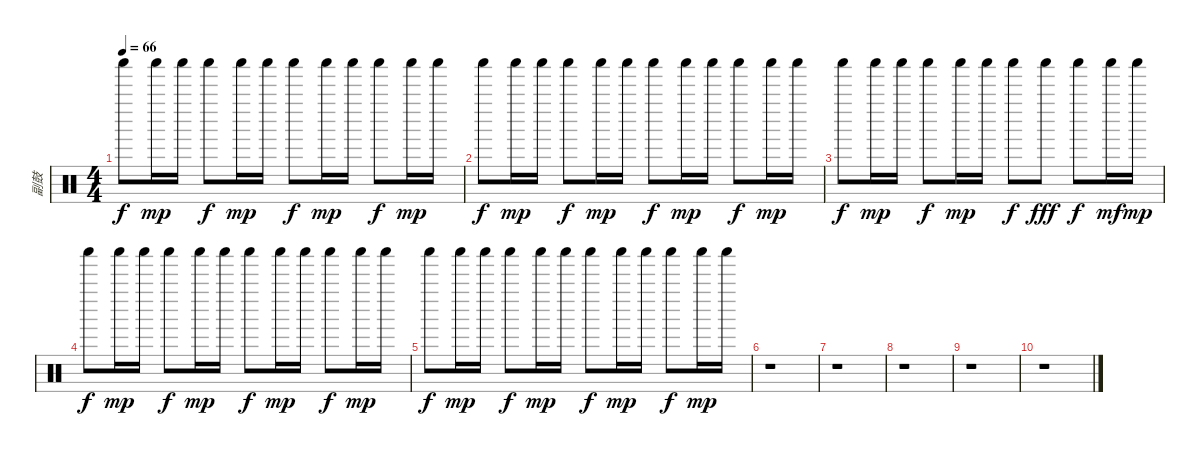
\track ("副鼓" "副鼓") {instrument percussion}
\staff {score}
\articulation defaults
\ts (4 4)
\tempo 66
\clef neutral
\ks c "Shaker (hit)".8{dy f} "Shaker (hit)".16{dy mp} "Shaker (hit)".16 "Shaker (hit)".8{dy f} "Shaker (hit)".16{dy mp} "Shaker (hit)".16 "Shaker (hit)".8{dy f} "Shaker (hit)".16{dy mp} "Shaker (hit)".16 "Shaker (hit)".8{dy f} "Shaker (hit)".16{dy mp} "Shaker (hit)".16
|
"Shaker (hit)".8{dy f} "Shaker (hit)".16{dy mp} "Shaker (hit)".16 "Shaker (hit)".8{dy f} "Shaker (hit)".16{dy mp} "Shaker (hit)".16 "Shaker (hit)".8{dy f} "Shaker (hit)".16{dy mp} "Shaker (hit)".16 "Shaker (hit)".8{dy f} "Shaker (hit)".16{dy mp} "Shaker (hit)".16 |
"Shaker (hit)".8{dy f} "Shaker (hit)".16{dy mp} "Shaker (hit)".16 "Shaker (hit)".8{dy f} "Shaker (hit)".16{dy mp} "Shaker (hit)".16 "Shaker (hit)".8{dy f} "Shaker (hit)".8{dy fff} "Shaker (hit)".8{dy f} "Shaker (hit)".16{dy mf} "Shaker (hit)".16{dy mp} |
"Shaker (hit)".8{dy f} "Shaker (hit)".16{dy mp} "Shaker (hit)".16 "Shaker (hit)".8{dy f} "Shaker (hit)".16{dy mp} "Shaker (hit)".16 "Shaker (hit)".8{dy f} "Shaker (hit)".16{dy mp} "Shaker (hit)".16 "Shaker (hit)".8{dy f} "Shaker (hit)".16{dy mp} "Shaker (hit)".16 |
"Shaker (hit)".8{dy f} "Shaker (hit)".16{dy mp} "Shaker (hit)".16 "Shaker (hit)".8{dy f} "Shaker (hit)".16{dy mp} "Shaker (hit)".16 "Shaker (hit)".8{dy f} "Shaker (hit)".16{dy mp} "Shaker (hit)".16 "Shaker (hit)".8{dy f} "Shaker (hit)".16{dy mp} "Shaker (hit)".16 |
r.1 |
r.1 |
r.1 |
r.1 |
r.1
